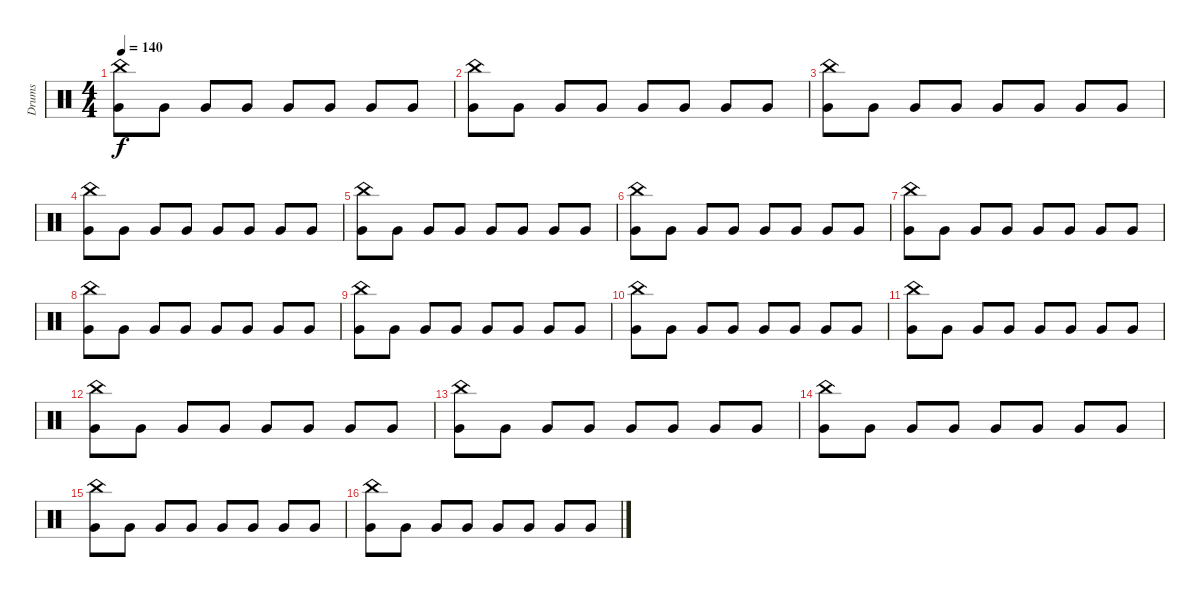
\track ("Drums" "Drums") {instrument percussion}
\staff {score}
\articulation defaults
\ts (4 4)
\tempo 140
\clef neutral
\ks c
("Very Low Tom (hit)" "China (hit)").8{dy f} "Very Low Tom (hit)".8 "Very Low Tom (hit)".8 "Very Low Tom (hit)".8 "Very Low Tom (hit)".8 "Very Low Tom (hit)".8 "Very Low Tom (hit)".8 "Very Low Tom (hit)".8 |
("Very Low Tom (hit)" "China (hit)").8 "Very Low Tom (hit)".8 "Very Low Tom (hit)".8 "Very Low Tom (hit)".8 "Very Low Tom (hit)".8 "Very Low Tom (hit)".8 "Very Low Tom (hit)".8 "Very Low Tom (hit)".8 |
("Very Low Tom (hit)" "China (hit)").8 "Very Low Tom (hit)".8 "Very Low Tom (hit)".8 "Very Low Tom (hit)".8 "Very Low Tom (hit)".8 "Very Low Tom (hit)".8 "Very Low Tom (hit)".8 "Very Low Tom (hit)".8 |
("Very Low Tom (hit)" "China (hit)").8 "Very Low Tom (hit)".8 "Very Low Tom (hit)".8 "Very Low Tom (hit)".8 "Very Low Tom (hit)".8 "Very Low Tom (hit)".8 "Very Low Tom (hit)".8 "Very Low Tom (hit)".8 |
("Very Low Tom (hit)" "China (hit)").8 "Very Low Tom (hit)".8 "Very Low Tom (hit)".8 "Very Low Tom (hit)".8 "Very Low Tom (hit)".8 "Very Low Tom (hit)".8 "Very Low Tom (hit)".8 "Very Low Tom (hit)".8 |
("Very Low Tom (hit)" "China (hit)").8 "Very Low Tom (hit)".8 "Very Low Tom (hit)".8 "Very Low Tom (hit)".8 "Very Low Tom (hit)".8 "Very Low Tom (hit)".8 "Very Low Tom (hit)".8 "Very Low Tom (hit)".8 |
("Very Low Tom (hit)" "China (hit)").8 "Very Low Tom (hit)".8 "Very Low Tom (hit)".8 "Very Low Tom (hit)".8 "Very Low Tom (hit)".8 "Very Low Tom (hit)".8 "Very Low Tom (hit)".8 "Very Low Tom (hit)".8 |
("Very Low Tom (hit)" "China (hit)").8 "Very Low Tom (hit)".8 "Very Low Tom (hit)".8 "Very Low Tom (hit)".8 "Very Low Tom (hit)".8 "Very Low Tom (hit)".8 "Very Low Tom (hit)".8 "Very Low Tom (hit)".8 |
("Very Low Tom (hit)" "China (hit)").8 "Very Low Tom (hit)".8 "Very Low Tom (hit)".8 "Very Low Tom (hit)".8 "Very Low Tom (hit)".8 "Very Low Tom (hit)".8 "Very Low Tom (hit)".8 "Very Low Tom (hit)".8 |
("Very Low Tom (hit)" "China (hit)").8 "Very Low Tom (hit)".8 "Very Low Tom (hit)".8 "Very Low Tom (hit)".8 "Very Low Tom (hit)".8 "Very Low Tom (hit)".8 "Very Low Tom (hit)".8 "Very Low Tom (hit)".8 |
("Very Low Tom (hit)" "China (hit)").8 "Very Low Tom (hit)".8 "Very Low Tom (hit)".8 "Very Low Tom (hit)".8 "Very Low Tom (hit)".8 "Very Low Tom (hit)".8 "Very Low Tom (hit)".8 "Very Low Tom (hit)".8 |
("Very Low Tom (hit)" "China (hit)").8 "Very Low Tom (hit)".8 "Very Low Tom (hit)".8 "Very Low Tom (hit)".8 "Very Low Tom (hit)".8 "Very Low Tom (hit)".8 "Very Low Tom (hit)".8 "Very Low Tom (hit)".8 |
("Very Low Tom (hit)" "China (hit)").8 "Very Low Tom (hit)".8 "Very Low Tom (hit)".8 "Very Low Tom (hit)".8 "Very Low Tom (hit)".8 "Very Low Tom (hit)".8 "Very Low Tom (hit)".8 "Very Low Tom (hit)".8 |
("Very Low Tom (hit)" "China (hit)").8 "Very Low Tom (hit)".8 "Very Low Tom (hit)".8 "Very Low Tom (hit)".8 "Very Low Tom (hit)".8 "Very Low Tom (hit)".8 "Very Low Tom (hit)".8 "Very Low Tom (hit)".8 |
("Very Low Tom (hit)" "China (hit)").8 "Very Low Tom (hit)".8 "Very Low Tom (hit)".8 "Very Low Tom (hit)".8 "Very Low Tom (hit)".8 "Very Low Tom (hit)".8 "Very Low Tom (hit)".8 "Very Low Tom (hit)".8 |
("Very Low Tom (hit)" "China (hit)").8 "Very Low Tom (hit)".8 "Very Low Tom (hit)".8 "Very Low Tom (hit)".8 "Very Low Tom (hit)".8 "Very Low Tom (hit)".8 "Very Low Tom (hit)".8 "Very Low Tom (hit)".8
